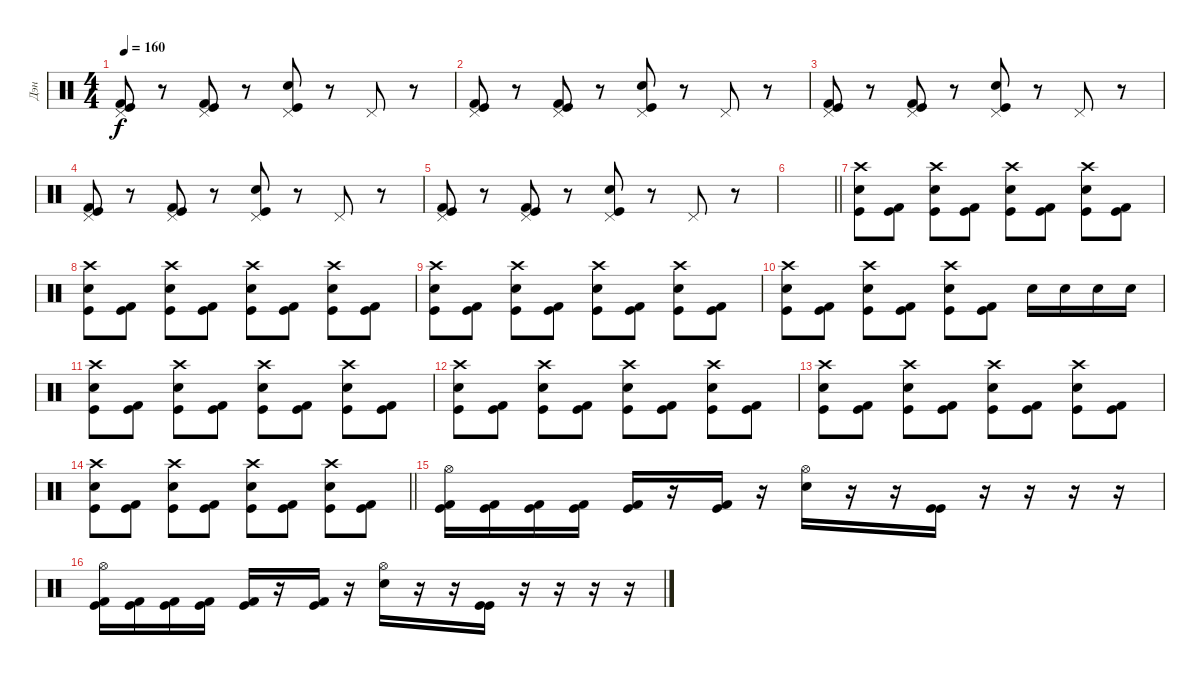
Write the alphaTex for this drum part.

\track ("Дэн" "Дэн") {instrument percussion}
\staff {score}
\articulation defaults
\ts (4 4)
\tempo 160
\clef neutral
\ks c
("Pedal Hi-Hat (hit)" "Kick (hit)" "Kick (hit) 2").8{dy f} r.8 ("Pedal Hi-Hat (hit)" "Kick (hit)" "Kick (hit) 2").8 r.8 ("Pedal Hi-Hat (hit)" "Electric Snare (hit)" "Kick (hit)").8 r.8 "Pedal Hi-Hat (hit)".8 r.8 |
("Pedal Hi-Hat (hit)" "Kick (hit)" "Kick (hit) 2").8 r.8 ("Pedal Hi-Hat (hit)" "Kick (hit)" "Kick (hit) 2").8 r.8 ("Pedal Hi-Hat (hit)" "Electric Snare (hit)" "Kick (hit)").8 r.8 "Pedal Hi-Hat (hit)".8 r.8 |
("Pedal Hi-Hat (hit)" "Kick (hit)" "Kick (hit) 2").8 r.8 ("Pedal Hi-Hat (hit)" "Kick (hit)" "Kick (hit) 2").8 r.8 ("Pedal Hi-Hat (hit)" "Electric Snare (hit)" "Kick (hit)").8 r.8 "Pedal Hi-Hat (hit)".8 r.8 |
("Pedal Hi-Hat (hit)" "Kick (hit)" "Kick (hit) 2").8 r.8 ("Pedal Hi-Hat (hit)" "Kick (hit)" "Kick (hit) 2").8 r.8 ("Pedal Hi-Hat (hit)" "Electric Snare (hit)" "Kick (hit)").8 r.8 "Pedal Hi-Hat (hit)".8 r.8 |
("Pedal Hi-Hat (hit)" "Kick (hit)" "Kick (hit) 2").8 r.8 ("Pedal Hi-Hat (hit)" "Kick (hit)" "Kick (hit) 2").8 r.8 ("Pedal Hi-Hat (hit)" "Electric Snare (hit)" "Kick (hit)").8 r.8 "Pedal Hi-Hat (hit)".8 r.8 |
\barLineRight lightlight
|
("Crash high (hit)" "Electric Snare (hit)" "Kick (hit)").8 ("Kick (hit)" "Kick (hit) 2").8 ("Crash high (hit)" "Electric Snare (hit)" "Kick (hit)").8 ("Kick (hit)" "Kick (hit) 2").8 ("Crash high (hit)" "Electric Snare (hit)" "Kick (hit)").8 ("Kick (hit)" "Kick (hit) 2").8 ("Crash high (hit)" "Electric Snare (hit)" "Kick (hit)").8 ("Kick (hit)" "Kick (hit) 2").8 |
("Crash high (hit)" "Electric Snare (hit)" "Kick (hit)").8 ("Kick (hit)" "Kick (hit) 2").8 ("Crash high (hit)" "Electric Snare (hit)" "Kick (hit)").8 ("Kick (hit)" "Kick (hit) 2").8 ("Crash high (hit)" "Electric Snare (hit)" "Kick (hit)").8 ("Kick (hit)" "Kick (hit) 2").8 ("Crash high (hit)" "Electric Snare (hit)" "Kick (hit)").8 ("Kick (hit)" "Kick (hit) 2").8 |
("Crash high (hit)" "Electric Snare (hit)" "Kick (hit)").8 ("Kick (hit)" "Kick (hit) 2").8 ("Crash high (hit)" "Electric Snare (hit)" "Kick (hit)").8 ("Kick (hit)" "Kick (hit) 2").8 ("Crash high (hit)" "Electric Snare (hit)" "Kick (hit)").8 ("Kick (hit)" "Kick (hit) 2").8 ("Crash high (hit)" "Electric Snare (hit)" "Kick (hit)").8 ("Kick (hit)" "Kick (hit) 2").8 |
("Crash high (hit)" "Electric Snare (hit)" "Kick (hit)").8 ("Kick (hit)" "Kick (hit) 2").8 ("Crash high (hit)" "Electric Snare (hit)" "Kick (hit)").8 ("Kick (hit)" "Kick (hit) 2").8 ("Crash high (hit)" "Electric Snare (hit)" "Kick (hit)").8 ("Kick (hit)" "Kick (hit) 2").8 "Electric Snare (hit)".16 "Electric Snare (hit)".16 "Electric Snare (hit)".16 "Electric Snare (hit)".16 |
("Crash high (hit)" "Electric Snare (hit)" "Kick (hit)").8 ("Kick (hit)" "Kick (hit) 2").8 ("Crash high (hit)" "Electric Snare (hit)" "Kick (hit)").8 ("Kick (hit)" "Kick (hit) 2").8 ("Crash high (hit)" "Electric Snare (hit)" "Kick (hit)").8 ("Kick (hit)" "Kick (hit) 2").8 ("Crash high (hit)" "Electric Snare (hit)" "Kick (hit)").8 ("Kick (hit)" "Kick (hit) 2").8 |
("Crash high (hit)" "Electric Snare (hit)" "Kick (hit)").8 ("Kick (hit)" "Kick (hit) 2").8 ("Crash high (hit)" "Electric Snare (hit)" "Kick (hit)").8 ("Kick (hit)" "Kick (hit) 2").8 ("Crash high (hit)" "Electric Snare (hit)" "Kick (hit)").8 ("Kick (hit)" "Kick (hit) 2").8 ("Crash high (hit)" "Electric Snare (hit)" "Kick (hit)").8 ("Kick (hit)" "Kick (hit) 2").8 |
("Crash high (hit)" "Electric Snare (hit)" "Kick (hit)").8 ("Kick (hit)" "Kick (hit) 2").8 ("Crash high (hit)" "Electric Snare (hit)" "Kick (hit)").8 ("Kick (hit)" "Kick (hit) 2").8 ("Crash high (hit)" "Electric Snare (hit)" "Kick (hit)").8 ("Kick (hit)" "Kick (hit) 2").8 ("Crash high (hit)" "Electric Snare (hit)" "Kick (hit)").8 ("Kick (hit)" "Kick (hit) 2").8 |
\barLineRight lightlight
("Crash high (hit)" "Electric Snare (hit)" "Kick (hit)").8 ("Kick (hit)" "Kick (hit) 2").8 ("Crash high (hit)" "Electric Snare (hit)" "Kick (hit)").8 ("Kick (hit)" "Kick (hit) 2").8 ("Crash high (hit)" "Electric Snare (hit)" "Kick (hit)").8 ("Kick (hit)" "Kick (hit) 2").8 ("Crash high (hit)" "Electric Snare (hit)" "Kick (hit)").8 ("Kick (hit)" "Kick (hit) 2").8 |
("Hi-Hat (open)" "Kick (hit)" "Kick (hit) 2").16 ("Kick (hit)" "Kick (hit) 2").16 ("Kick (hit)" "Kick (hit) 2").16 ("Kick (hit)" "Kick (hit) 2").16 ("Kick (hit)" "Kick (hit) 2").16 r.16 ("Kick (hit)" "Kick (hit) 2").16 r.16 ("Hi-Hat (open)" "Electric Snare (hit)").16 r.16 r.16 ("Kick (hit)" "Kick (hit)").16 r.16 r.16 r.16 r.16 |
("Hi-Hat (open)" "Kick (hit)" "Kick (hit) 2").16 ("Kick (hit)" "Kick (hit) 2").16 ("Kick (hit)" "Kick (hit) 2").16 ("Kick (hit)" "Kick (hit) 2").16 ("Kick (hit)" "Kick (hit) 2").16 r.16 ("Kick (hit)" "Kick (hit) 2").16 r.16 ("Hi-Hat (open)" "Electric Snare (hit)").16 r.16 r.16 ("Kick (hit)" "Kick (hit)").16 r.16 r.16 r.16 r.16
